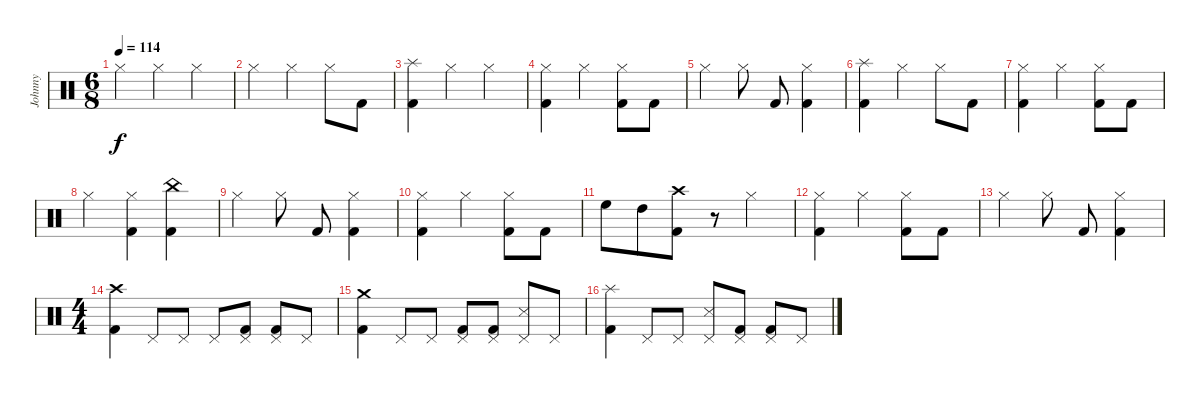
\track ("Johnny" "Johnny") {instrument percussion}
\staff {score}
\articulation defaults
\ts (6 8)
\tempo 114
\clef neutral
\ks c "Hi-Hat (closed)".4{dy f} "Hi-Hat (closed)".4 "Hi-Hat (closed)".4
|
"Hi-Hat (closed)".4 "Hi-Hat (closed)".4 "Hi-Hat (closed)".8 "Kick (hit) 2".8 |
("Splash (hit)" "Kick (hit) 2").4 "Hi-Hat (closed)".4 "Hi-Hat (closed)".4 |
("Hi-Hat (closed)" "Kick (hit) 2").4 "Hi-Hat (closed)".4 ("Hi-Hat (closed)" "Kick (hit) 2").8 "Kick (hit) 2".8 |
"Hi-Hat (closed)".4 "Hi-Hat (closed)".8 "Kick (hit) 2".8 ("Hi-Hat (closed)" "Kick (hit) 2").4 |
("Splash (hit)" "Kick (hit) 2").4 "Hi-Hat (closed)".4 "Hi-Hat (closed)".8 "Kick (hit) 2".8 |
("Hi-Hat (closed)" "Kick (hit) 2").4 "Hi-Hat (closed)".4 ("Hi-Hat (closed)" "Kick (hit) 2").8 "Kick (hit) 2".8 |
"Hi-Hat (closed)".4 ("Hi-Hat (closed)" "Kick (hit) 2").4 ("China (hit)" "Kick (hit) 2").4 |
"Hi-Hat (closed)".4 "Hi-Hat (closed)".8 "Kick (hit) 2".8 ("Hi-Hat (closed)" "Kick (hit) 2").4 |
("Hi-Hat (closed)" "Kick (hit) 2").4 "Hi-Hat (closed)".4 ("Hi-Hat (closed)" "Kick (hit) 2").8 "Kick (hit) 2".8 |
"High Floor Tom (hit)".8 "High Tom (hit)".8 ("Kick (hit) 2" "Crash high (hit)").8 r.8 "Hi-Hat (closed)".4 |
("Hi-Hat (closed)" "Kick (hit) 2").4 "Hi-Hat (closed)".4 ("Hi-Hat (closed)" "Kick (hit) 2").8 "Kick (hit) 2".8 |
"Hi-Hat (closed)".4 "Hi-Hat (closed)".8 "Kick (hit) 2".8 ("Hi-Hat (closed)" "Kick (hit) 2").4 |
\ts (4 4)
("Crash high (hit)" "Kick (hit) 2").4 "Pedal Hi-Hat (hit)".8 "Pedal Hi-Hat (hit)".8 "Pedal Hi-Hat (hit)".8 ("Pedal Hi-Hat (hit)" "Kick (hit) 2").8 ("Pedal Hi-Hat (hit)" "Kick (hit) 2").8 "Pedal Hi-Hat (hit)".8 |
("Crash medium (hit)" "Kick (hit) 2").4 "Pedal Hi-Hat (hit)".8 "Pedal Hi-Hat (hit)".8 ("Pedal Hi-Hat (hit)" "Kick (hit) 2").8 ("Pedal Hi-Hat (hit)" "Kick (hit) 2").8 ("Pedal Hi-Hat (hit)" "Snare (side stick) 3").8 "Pedal Hi-Hat (hit)".8 |
("Splash (hit)" "Kick (hit) 2").4 "Pedal Hi-Hat (hit)".8 "Pedal Hi-Hat (hit)".8 ("Pedal Hi-Hat (hit)" "Snare (side stick) 3").8 ("Pedal Hi-Hat (hit)" "Kick (hit) 2").8 ("Pedal Hi-Hat (hit)" "Kick (hit) 2").8 "Pedal Hi-Hat (hit)".8
